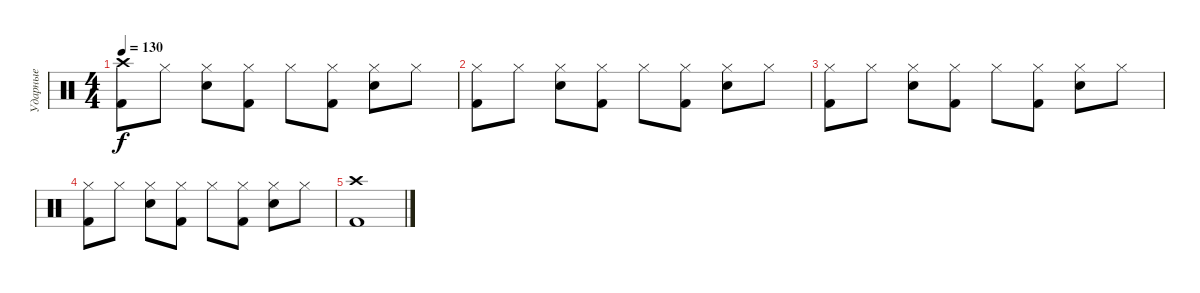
\track ("Ударные" "Ударные") {instrument percussion}
\staff {score}
\articulation defaults
\ts (4 4)
\tempo 130
\clef neutral
\ks c
("Crash high (hit)" "Kick (hit) 2").8{dy f} "Hi-Hat (closed)".8 ("Hi-Hat (closed)" "Snare (hit) 2").8 ("Hi-Hat (closed)" "Kick (hit) 2").8 "Hi-Hat (closed)".8 ("Hi-Hat (closed)" "Kick (hit) 2").8 ("Hi-Hat (closed)" "Snare (hit) 2").8 "Hi-Hat (closed)".8 |
("Hi-Hat (closed)" "Kick (hit) 2").8 "Hi-Hat (closed)".8 ("Hi-Hat (closed)" "Snare (hit) 2").8 ("Hi-Hat (closed)" "Kick (hit) 2").8 "Hi-Hat (closed)".8 ("Hi-Hat (closed)" "Kick (hit) 2").8 ("Hi-Hat (closed)" "Snare (hit) 2").8 "Hi-Hat (closed)".8 |
("Hi-Hat (closed)" "Kick (hit) 2").8 "Hi-Hat (closed)".8 ("Hi-Hat (closed)" "Snare (hit) 2").8 ("Hi-Hat (closed)" "Kick (hit) 2").8 "Hi-Hat (closed)".8 ("Hi-Hat (closed)" "Kick (hit) 2").8 ("Hi-Hat (closed)" "Snare (hit) 2").8 "Hi-Hat (closed)".8 |
("Hi-Hat (closed)" "Kick (hit) 2").8 "Hi-Hat (closed)".8 ("Hi-Hat (closed)" "Snare (hit) 2").8 ("Hi-Hat (closed)" "Kick (hit) 2").8 "Hi-Hat (closed)".8 ("Hi-Hat (closed)" "Kick (hit) 2").8 ("Hi-Hat (closed)" "Snare (hit) 2").8 "Hi-Hat (closed)".8 |
("Crash high (hit)" "Kick (hit) 2").1
